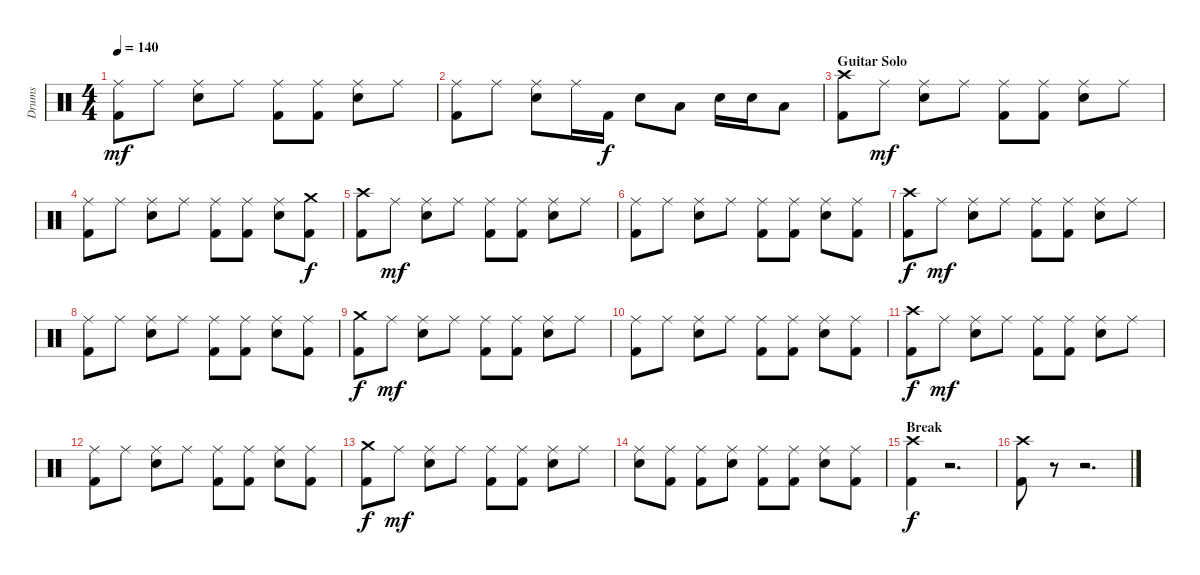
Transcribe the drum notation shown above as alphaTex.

\track ("Drums" "Drums") {instrument percussion}
\staff {score}
\articulation defaults
\ts (4 4)
\tempo 140
\clef neutral
\ks c
("Ride (middle)" "Kick (hit) 2").8{dy mf} "Ride (middle)".8 ("Ride (middle)" "Electric Snare (hit)").8 "Ride (middle)".8 ("Ride (middle)" "Kick (hit) 2").8 ("Ride (middle)" "Kick (hit) 2").8 ("Ride (middle)" "Electric Snare (hit)").8 "Ride (middle)".8 |
("Ride (middle)" "Kick (hit) 2").8 "Ride (middle)".8 ("Ride (middle)" "Electric Snare (hit)").8 "Ride (middle)".16 "Kick (hit) 2".16{dy f} "Electric Snare (hit)".8 "Low Tom (hit)".8 "Electric Snare (hit)".16 "Electric Snare (hit)".16 "Low Tom (hit)".8 |
\section ("" "Guitar Solo")
("Crash high (hit)" "Kick (hit) 2").8 "Ride (middle)".8{dy mf} ("Ride (middle)" "Electric Snare (hit)").8 "Ride (middle)".8 ("Ride (middle)" "Kick (hit) 2").8 ("Ride (middle)" "Kick (hit) 2").8 ("Ride (middle)" "Electric Snare (hit)").8 "Ride (middle)".8 |
("Ride (middle)" "Kick (hit) 2").8 "Ride (middle)".8 ("Ride (middle)" "Electric Snare (hit)").8 "Ride (middle)".8 ("Ride (middle)" "Kick (hit) 2").8 ("Ride (middle)" "Kick (hit) 2").8 ("Ride (middle)" "Electric Snare (hit)").8 ("Crash medium (hit)" "Kick (hit) 2").8{dy f} |
("Crash high (hit)" "Kick (hit) 2").8 "Ride (middle)".8{dy mf} ("Ride (middle)" "Electric Snare (hit)").8 "Ride (middle)".8 ("Ride (middle)" "Kick (hit) 2").8 ("Ride (middle)" "Kick (hit) 2").8 ("Ride (middle)" "Electric Snare (hit)").8 "Ride (middle)".8 |
("Ride (middle)" "Kick (hit) 2").8 "Ride (middle)".8 ("Ride (middle)" "Electric Snare (hit)").8 "Ride (middle)".8 ("Ride (middle)" "Kick (hit) 2").8 ("Ride (middle)" "Kick (hit) 2").8 ("Ride (middle)" "Electric Snare (hit)").8 ("Ride (middle)" "Kick (hit) 2").8 |
("Crash high (hit)" "Kick (hit) 2").8{dy f} "Ride (middle)".8{dy mf} ("Ride (middle)" "Electric Snare (hit)").8 "Ride (middle)".8 ("Ride (middle)" "Kick (hit) 2").8 ("Ride (middle)" "Kick (hit) 2").8 ("Ride (middle)" "Electric Snare (hit)").8 "Ride (middle)".8 |
("Ride (middle)" "Kick (hit) 2").8 "Ride (middle)".8 ("Ride (middle)" "Electric Snare (hit)").8 "Ride (middle)".8 ("Ride (middle)" "Kick (hit) 2").8 ("Ride (middle)" "Kick (hit) 2").8 ("Ride (middle)" "Electric Snare (hit)").8 ("Ride (middle)" "Kick (hit) 2").8 |
("Crash medium (hit)" "Kick (hit) 2").8{dy f} "Ride (middle)".8{dy mf} ("Ride (middle)" "Electric Snare (hit)").8 "Ride (middle)".8 ("Ride (middle)" "Kick (hit) 2").8 ("Ride (middle)" "Kick (hit) 2").8 ("Ride (middle)" "Electric Snare (hit)").8 "Ride (middle)".8 |
("Ride (middle)" "Kick (hit) 2").8 "Ride (middle)".8 ("Ride (middle)" "Electric Snare (hit)").8 "Ride (middle)".8 ("Ride (middle)" "Kick (hit) 2").8 ("Ride (middle)" "Kick (hit) 2").8 ("Ride (middle)" "Electric Snare (hit)").8 ("Ride (middle)" "Kick (hit) 2").8 |
("Crash high (hit)" "Kick (hit) 2").8{dy f} "Ride (middle)".8{dy mf} ("Ride (middle)" "Electric Snare (hit)").8 "Ride (middle)".8 ("Ride (middle)" "Kick (hit) 2").8 ("Ride (middle)" "Kick (hit) 2").8 ("Ride (middle)" "Electric Snare (hit)").8 "Ride (middle)".8 |
("Ride (middle)" "Kick (hit) 2").8 "Ride (middle)".8 ("Ride (middle)" "Electric Snare (hit)").8 "Ride (middle)".8 ("Ride (middle)" "Kick (hit) 2").8 ("Ride (middle)" "Kick (hit) 2").8 ("Ride (middle)" "Electric Snare (hit)").8 ("Ride (middle)" "Kick (hit) 2").8 |
("Crash medium (hit)" "Kick (hit) 2").8{dy f} "Ride (middle)".8{dy mf} ("Ride (middle)" "Electric Snare (hit)").8 "Ride (middle)".8 ("Ride (middle)" "Kick (hit) 2").8 ("Ride (middle)" "Kick (hit) 2").8 ("Ride (middle)" "Electric Snare (hit)").8 "Ride (middle)".8 |
("Ride (middle)" "Electric Snare (hit)").8 ("Ride (middle)" "Kick (hit) 2").8 ("Ride (middle)" "Kick (hit) 2").8 ("Ride (middle)" "Electric Snare (hit)").8 ("Ride (middle)" "Kick (hit) 2").8 ("Ride (middle)" "Kick (hit) 2").8 ("Ride (middle)" "Electric Snare (hit)").8 ("Ride (middle)" "Kick (hit) 2").8 |
\section ("" "Break")
("Crash high (hit)" "Kick (hit) 2").4{dy f} r.2{d} |
("Crash high (hit)" "Kick (hit) 2").8 r.8 r.2{d}
